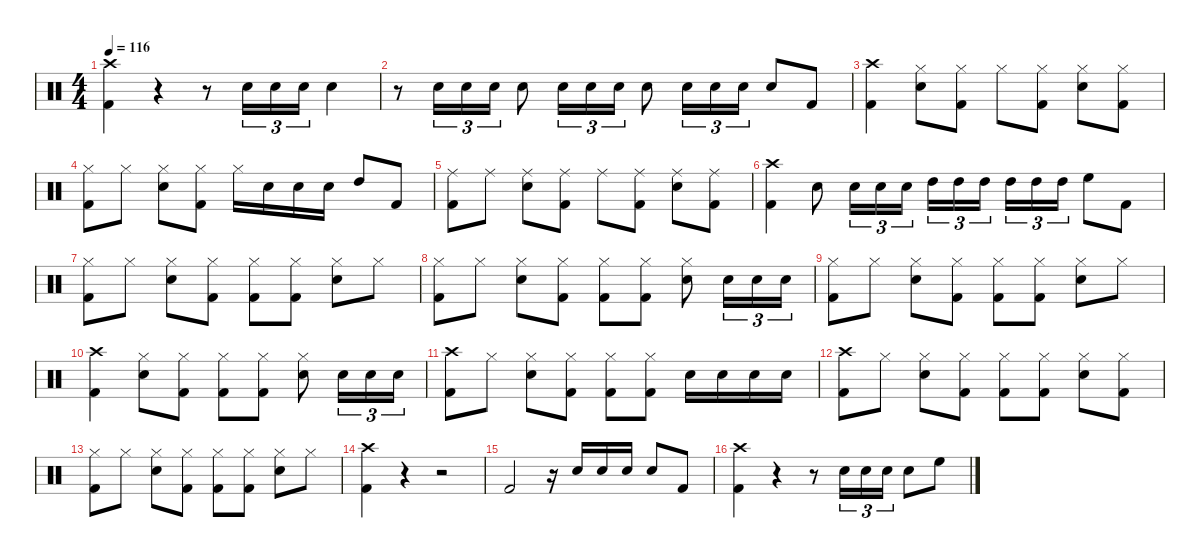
\defaultSystemsLayout 4
\hideDynamics
\bracketExtendMode nobrackets
\singleTrackTrackNamePolicy hidden
\multiTrackTrackNamePolicy hidden
\firstSystemTrackNameMode fullname
\firstSystemTrackNameOrientation horizontal
\otherSystemsTrackNameOrientation horizontal
\track ("Drums" "drm.") {instrument percussion}
\staff {score}
\articulation defaults
\ts (4 4)
\tempo 116
\clef neutral
\ks c
("Crash high (hit)" "Kick (hit) 2").4{dy f beam Down} r.4{beam Down} r.8{beam Down} "Snare (hit) 2".16{tu (3 2) beam Down} "Snare (hit) 2".16{tu (3 2) beam Down} "Snare (hit) 2".16{tu (3 2) beam Down} "Snare (hit) 2".4{beam Down} |
r.8{beam Down} "Snare (hit) 2".16{tu (3 2) beam Down} "Snare (hit) 2".16{tu (3 2) beam Down} "Snare (hit) 2".16{tu (3 2) beam Down} "Snare (hit) 2".8{beam Down} "Snare (hit) 2".16{tu (3 2) beam Down} "Snare (hit) 2".16{tu (3 2) beam Down} "Snare (hit) 2".16{tu (3 2) beam Down} "Snare (hit) 2".8{beam Down} "Snare (hit) 2".16{tu (3 2) beam Down} "Snare (hit) 2".16{tu (3 2) beam Down} "Snare (hit) 2".16{tu (3 2) beam Down} "Snare (hit) 2".8{beam Up} "Kick (hit) 2".8{beam Up} |
("Crash high (hit)" "Kick (hit) 2").4{beam Down} ("Hi-Hat (closed)" "Snare (hit) 2").8{beam Down} ("Hi-Hat (closed)" "Kick (hit) 2").8{beam Down} "Hi-Hat (closed)".8{beam Down} ("Hi-Hat (closed)" "Kick (hit) 2").8{beam Down} ("Hi-Hat (closed)" "Snare (hit) 2").8{beam Down} ("Hi-Hat (closed)" "Kick (hit) 2").8{beam Down} |
("Hi-Hat (closed)" "Kick (hit) 2").8{beam Down} "Hi-Hat (closed)".8{beam Down} ("Hi-Hat (closed)" "Snare (hit) 2").8{beam Down} ("Hi-Hat (closed)" "Kick (hit) 2").8{beam Down} "Hi-Hat (closed)".16{beam Down} "Snare (hit) 2".16{beam Down} "Snare (hit) 2".16{beam Down} "Snare (hit) 2".16{beam Down} "High Tom (hit)".8{beam Up} "Kick (hit) 2".8{beam Up} |
("Ride (middle)" "Kick (hit) 2").8{beam Down} "Ride (middle)".8{beam Down} ("Ride (middle)" "Snare (hit) 2").8{beam Down} ("Ride (middle)" "Kick (hit) 2").8{beam Down} "Ride (middle)".8{beam Down} ("Ride (middle)" "Kick (hit) 2").8{beam Down} ("Ride (middle)" "Snare (hit) 2").8{beam Down} ("Ride (middle)" "Kick (hit) 2").8{beam Down} |
("Crash high (hit)" "Kick (hit) 2").4{beam Down} "Snare (hit) 2".8{beam Down} "Snare (hit) 2".16{tu (3 2) beam Down} "Snare (hit) 2".16{tu (3 2) beam Down} "Snare (hit) 2".16{tu (3 2) beam Down} "High Tom (hit)".16{tu (3 2) beam Down} "High Tom (hit)".16{tu (3 2) beam Down} "High Tom (hit)".16{tu (3 2) beam Down} "High Tom (hit)".16{tu (3 2) beam Down} "High Tom (hit)".16{tu (3 2) beam Down} "High Tom (hit)".16{tu (3 2) beam Down} "High Floor Tom (hit)".8{beam Down} "Kick (hit) 2".8{beam Down} |
("Hi-Hat (closed)" "Kick (hit) 2").8{beam Down} "Hi-Hat (closed)".8{beam Down} ("Hi-Hat (closed)" "Snare (hit) 2").8{beam Down} ("Hi-Hat (closed)" "Kick (hit) 2").8{beam Down} ("Hi-Hat (closed)" "Kick (hit) 2").8{beam Down} ("Hi-Hat (closed)" "Kick (hit) 2").8{beam Down} ("Hi-Hat (closed)" "Snare (hit) 2").8{beam Down} "Hi-Hat (closed)".8{beam Down} |
("Hi-Hat (closed)" "Kick (hit) 2").8{beam Down} "Hi-Hat (closed)".8{beam Down} ("Hi-Hat (closed)" "Snare (hit) 2").8{beam Down} ("Hi-Hat (closed)" "Kick (hit) 2").8{beam Down} ("Hi-Hat (closed)" "Kick (hit) 2").8{beam Down} ("Hi-Hat (closed)" "Kick (hit) 2").8{beam Down} ("Hi-Hat (closed)" "Snare (hit) 2").8{beam Down} "Snare (hit) 2".16{tu (3 2) beam Down} "Snare (hit) 2".16{tu (3 2) beam Down} "Snare (hit) 2".16{tu (3 2) beam Down} |
("Hi-Hat (closed)" "Kick (hit) 2").8{beam Down} "Hi-Hat (closed)".8{beam Down} ("Hi-Hat (closed)" "Snare (hit) 2").8{beam Down} ("Hi-Hat (closed)" "Kick (hit) 2").8{beam Down} ("Hi-Hat (closed)" "Kick (hit) 2").8{beam Down} ("Hi-Hat (closed)" "Kick (hit) 2").8{beam Down} ("Hi-Hat (closed)" "Snare (hit) 2").8{beam Down} "Hi-Hat (closed)".8{beam Down} |
("Crash high (hit)" "Kick (hit) 2").4{beam Down} ("Hi-Hat (closed)" "Snare (hit) 2").8{beam Down} ("Hi-Hat (closed)" "Kick (hit) 2").8{beam Down} ("Hi-Hat (closed)" "Kick (hit) 2").8{beam Down} ("Hi-Hat (closed)" "Kick (hit) 2").8{beam Down} ("Hi-Hat (closed)" "Snare (hit) 2").8{beam Down} "Snare (hit) 2".16{tu (3 2) beam Down} "Snare (hit) 2".16{tu (3 2) beam Down} "Snare (hit) 2".16{tu (3 2) beam Down} |
("Crash high (hit)" "Kick (hit) 2").8{beam Down} "Hi-Hat (closed)".8{beam Down} ("Hi-Hat (closed)" "Snare (hit) 2").8{beam Down} ("Hi-Hat (closed)" "Kick (hit) 2").8{beam Down} ("Hi-Hat (closed)" "Kick (hit) 2").8{beam Down} ("Hi-Hat (closed)" "Kick (hit) 2").8{beam Down} "Snare (hit) 2".16{beam Down} "Snare (hit) 2".16{beam Down} "Snare (hit) 2".16{beam Down} "Snare (hit) 2".16{beam Down} |
("Crash high (hit)" "Kick (hit) 2").8{beam Down} "Hi-Hat (closed)".8{beam Down} ("Hi-Hat (closed)" "Snare (hit) 2").8{beam Down} ("Hi-Hat (closed)" "Kick (hit) 2").8{beam Down} ("Hi-Hat (closed)" "Kick (hit) 2").8{beam Down} ("Hi-Hat (closed)" "Kick (hit) 2").8{beam Down} ("Hi-Hat (closed)" "Snare (hit) 2").8{beam Down} ("Hi-Hat (closed)" "Kick (hit) 2").8{beam Down} |
("Hi-Hat (closed)" "Kick (hit) 2").8{beam Down} "Hi-Hat (closed)".8{beam Down} ("Hi-Hat (closed)" "Snare (hit) 2").8{beam Down} ("Hi-Hat (closed)" "Kick (hit) 2").8{beam Down} ("Hi-Hat (closed)" "Kick (hit) 2").8{beam Down} ("Hi-Hat (closed)" "Kick (hit) 2").8{beam Down} ("Hi-Hat (closed)" "Snare (hit) 2").8{beam Down} "Hi-Hat (closed)".8{beam Down} |
("Crash high (hit)" "Kick (hit) 2").4{beam Down} r.4{beam Down} r.2{beam Down} |
"Kick (hit) 2".2{beam Up} r.16{beam Up} "Snare (hit) 2".16{beam Down} "Snare (hit) 2".16{beam Down} "Snare (hit) 2".16{beam Down} "Snare (hit) 2".8{beam Up} "Kick (hit) 2".8{beam Up} |
("Crash high (hit)" "Kick (hit) 2").4{beam Down} r.4{beam Down} r.8{beam Down} "Snare (hit) 2".16{tu (3 2) beam Down} "Snare (hit) 2".16{tu (3 2) beam Down} "Snare (hit) 2".16{tu (3 2) beam Down} "Snare (hit) 2".8{beam Down} "High Floor Tom (hit)".8{beam Down}
